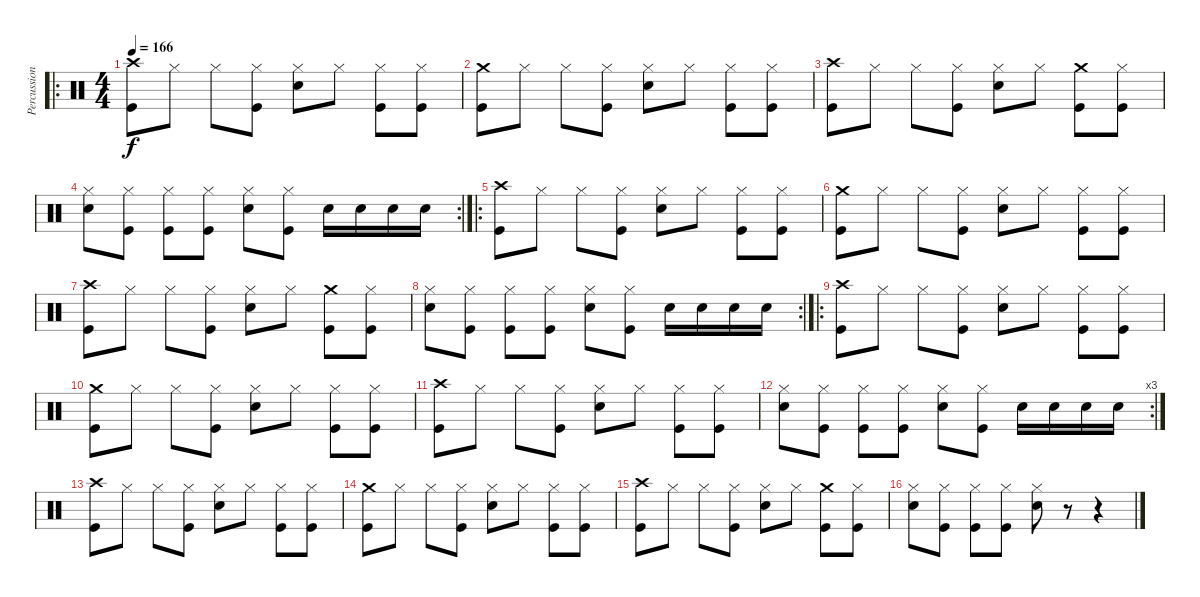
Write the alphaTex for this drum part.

\track ("Percussions" "Percussion") {instrument percussion}
\staff {score}
\articulation defaults
\ro
\ts (4 4)
\tempo 166
\clef neutral
\ks c
("Crash high (hit)" "Kick (hit)").8{dy f} "Hi-Hat (closed)".8 "Hi-Hat (closed)".8 ("Hi-Hat (closed)" "Kick (hit)").8 ("Hi-Hat (closed)" "Snare (hit) 2").8 "Hi-Hat (closed)".8 ("Hi-Hat (closed)" "Kick (hit)").8 ("Hi-Hat (closed)" "Kick (hit)").8 |
("Crash medium (hit)" "Kick (hit)").8 "Hi-Hat (closed)".8 "Hi-Hat (closed)".8 ("Hi-Hat (closed)" "Kick (hit)").8 ("Hi-Hat (closed)" "Snare (hit) 2").8 "Hi-Hat (closed)".8 ("Hi-Hat (closed)" "Kick (hit)").8 ("Hi-Hat (closed)" "Kick (hit)").8 |
("Crash high (hit)" "Kick (hit)").8 "Hi-Hat (closed)".8 "Hi-Hat (closed)".8 ("Hi-Hat (closed)" "Kick (hit)").8 ("Hi-Hat (closed)" "Snare (hit) 2").8 "Hi-Hat (closed)".8 ("Crash medium (hit)" "Kick (hit)").8 ("Hi-Hat (closed)" "Kick (hit)").8 |
\rc 2
("Hi-Hat (closed)" "Snare (hit) 2").8 ("Hi-Hat (closed)" "Kick (hit)").8 ("Hi-Hat (closed)" "Kick (hit)").8 ("Hi-Hat (closed)" "Kick (hit)").8 ("Hi-Hat (closed)" "Snare (hit) 2").8 ("Hi-Hat (closed)" "Kick (hit)").8 "Snare (hit) 2".16 "Snare (hit) 2".16 "Snare (hit) 2".16 "Snare (hit) 2".16 |
\ro
("Crash high (hit)" "Kick (hit)").8 "Hi-Hat (closed)".8 "Hi-Hat (closed)".8 ("Hi-Hat (closed)" "Kick (hit)").8 ("Hi-Hat (closed)" "Snare (hit) 2").8 "Hi-Hat (closed)".8 ("Hi-Hat (closed)" "Kick (hit)").8 ("Hi-Hat (closed)" "Kick (hit)").8 |
("Crash medium (hit)" "Kick (hit)").8 "Hi-Hat (closed)".8 "Hi-Hat (closed)".8 ("Hi-Hat (closed)" "Kick (hit)").8 ("Hi-Hat (closed)" "Snare (hit) 2").8 "Hi-Hat (closed)".8 ("Hi-Hat (closed)" "Kick (hit)").8 ("Hi-Hat (closed)" "Kick (hit)").8 |
("Crash high (hit)" "Kick (hit)").8 "Hi-Hat (closed)".8 "Hi-Hat (closed)".8 ("Hi-Hat (closed)" "Kick (hit)").8 ("Hi-Hat (closed)" "Snare (hit) 2").8 "Hi-Hat (closed)".8 ("Crash medium (hit)" "Kick (hit)").8 ("Hi-Hat (closed)" "Kick (hit)").8 |
\rc 2
("Hi-Hat (closed)" "Snare (hit) 2").8 ("Hi-Hat (closed)" "Kick (hit)").8 ("Hi-Hat (closed)" "Kick (hit)").8 ("Hi-Hat (closed)" "Kick (hit)").8 ("Hi-Hat (closed)" "Snare (hit) 2").8 ("Hi-Hat (closed)" "Kick (hit)").8 "Snare (hit) 2".16 "Snare (hit) 2".16 "Snare (hit) 2".16 "Snare (hit) 2".16 |
\ro
("Crash high (hit)" "Kick (hit)").8 "Hi-Hat (closed)".8 "Hi-Hat (closed)".8 ("Hi-Hat (closed)" "Kick (hit)").8 ("Hi-Hat (closed)" "Snare (hit) 2").8 "Hi-Hat (closed)".8 ("Hi-Hat (closed)" "Kick (hit)").8 ("Hi-Hat (closed)" "Kick (hit)").8 |
("Crash medium (hit)" "Kick (hit)").8 "Hi-Hat (closed)".8 "Hi-Hat (closed)".8 ("Hi-Hat (closed)" "Kick (hit)").8 ("Hi-Hat (closed)" "Snare (hit) 2").8 "Hi-Hat (closed)".8 ("Hi-Hat (closed)" "Kick (hit)").8 ("Hi-Hat (closed)" "Kick (hit)").8 |
("Crash high (hit)" "Kick (hit)").8 "Hi-Hat (closed)".8 "Hi-Hat (closed)".8 ("Hi-Hat (closed)" "Kick (hit)").8 ("Hi-Hat (closed)" "Snare (hit) 2").8 "Hi-Hat (closed)".8 ("Hi-Hat (closed)" "Kick (hit)").8 ("Hi-Hat (closed)" "Kick (hit)").8 |
\rc 3
("Hi-Hat (closed)" "Snare (hit) 2").8 ("Hi-Hat (closed)" "Kick (hit)").8 ("Hi-Hat (closed)" "Kick (hit)").8 ("Hi-Hat (closed)" "Kick (hit)").8 ("Hi-Hat (closed)" "Snare (hit) 2").8 ("Hi-Hat (closed)" "Kick (hit)").8 "Snare (hit) 2".16 "Snare (hit) 2".16 "Snare (hit) 2".16 "Snare (hit) 2".16 |
("Crash high (hit)" "Kick (hit)").8 "Hi-Hat (closed)".8 "Hi-Hat (closed)".8 ("Hi-Hat (closed)" "Kick (hit)").8 ("Hi-Hat (closed)" "Snare (hit) 2").8 "Hi-Hat (closed)".8 ("Hi-Hat (closed)" "Kick (hit)").8 ("Hi-Hat (closed)" "Kick (hit)").8 |
("Crash medium (hit)" "Kick (hit)").8 "Hi-Hat (closed)".8 "Hi-Hat (closed)".8 ("Hi-Hat (closed)" "Kick (hit)").8 ("Hi-Hat (closed)" "Snare (hit) 2").8 "Hi-Hat (closed)".8 ("Hi-Hat (closed)" "Kick (hit)").8 ("Hi-Hat (closed)" "Kick (hit)").8 |
("Crash high (hit)" "Kick (hit)").8 "Hi-Hat (closed)".8 "Hi-Hat (closed)".8 ("Hi-Hat (closed)" "Kick (hit)").8 ("Hi-Hat (closed)" "Snare (hit) 2").8 "Hi-Hat (closed)".8 ("Crash medium (hit)" "Kick (hit)").8 ("Hi-Hat (closed)" "Kick (hit)").8 |
("Hi-Hat (closed)" "Snare (hit) 2").8 ("Hi-Hat (closed)" "Kick (hit)").8 ("Hi-Hat (closed)" "Kick (hit)").8 ("Hi-Hat (closed)" "Kick (hit)").8 ("Hi-Hat (closed)" "Snare (hit) 2").8 r.8 r.4
